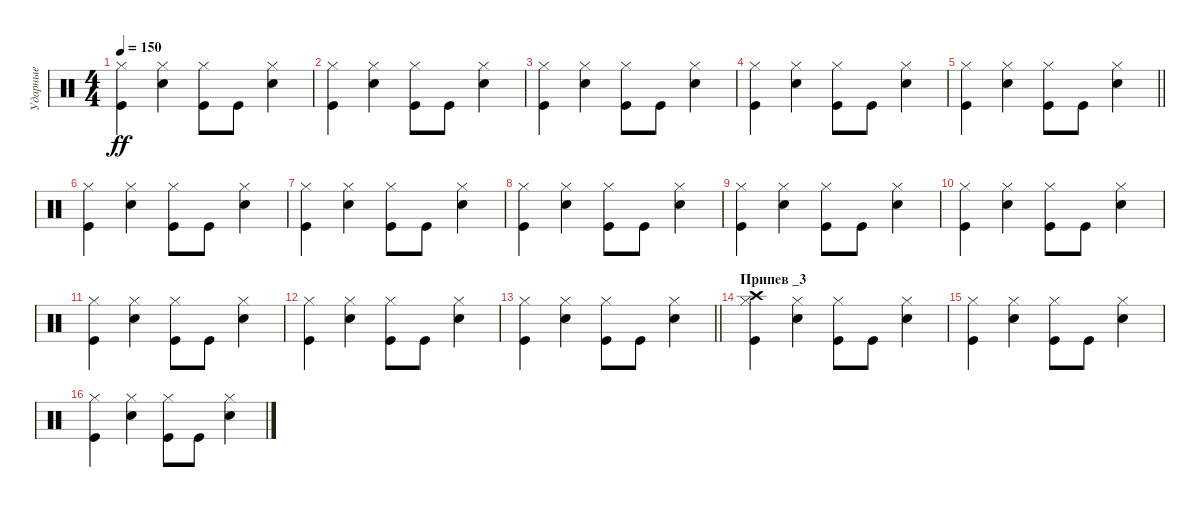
\track ("Ударные" "Ударные") {instrument percussion}
\staff {score}
\articulation defaults
\ts (4 4)
\tempo 150
\clef neutral
\ks c
("Kick (hit)" "Hi-Hat (closed)").4{dy ff} ("Snare (hit) 2" "Hi-Hat (closed)").4 ("Kick (hit)" "Hi-Hat (closed)").8 "Kick (hit)".8 ("Snare (hit) 2" "Hi-Hat (closed)").4 |
("Kick (hit)" "Hi-Hat (closed)").4 ("Snare (hit) 2" "Hi-Hat (closed)").4 ("Kick (hit)" "Hi-Hat (closed)").8 "Kick (hit)".8 ("Snare (hit) 2" "Hi-Hat (closed)").4 |
("Kick (hit)" "Hi-Hat (closed)").4 ("Snare (hit) 2" "Hi-Hat (closed)").4 ("Kick (hit)" "Hi-Hat (closed)").8 "Kick (hit)".8 ("Snare (hit) 2" "Hi-Hat (closed)").4 |
("Kick (hit)" "Hi-Hat (closed)").4 ("Snare (hit) 2" "Hi-Hat (closed)").4 ("Kick (hit)" "Hi-Hat (closed)").8 "Kick (hit)".8 ("Snare (hit) 2" "Hi-Hat (closed)").4 |
\barLineRight lightlight
("Kick (hit)" "Hi-Hat (closed)").4 ("Snare (hit) 2" "Hi-Hat (closed)").4 ("Kick (hit)" "Hi-Hat (closed)").8 "Kick (hit)".8 ("Snare (hit) 2" "Hi-Hat (closed)").4 |
("Kick (hit)" "Hi-Hat (closed)").4 ("Snare (hit) 2" "Hi-Hat (closed)").4 ("Kick (hit)" "Hi-Hat (closed)").8 "Kick (hit)".8 ("Snare (hit) 2" "Hi-Hat (closed)").4 |
("Kick (hit)" "Hi-Hat (closed)").4 ("Snare (hit) 2" "Hi-Hat (closed)").4 ("Kick (hit)" "Hi-Hat (closed)").8 "Kick (hit)".8 ("Snare (hit) 2" "Hi-Hat (closed)").4 |
("Kick (hit)" "Hi-Hat (closed)").4 ("Snare (hit) 2" "Hi-Hat (closed)").4 ("Kick (hit)" "Hi-Hat (closed)").8 "Kick (hit)".8 ("Snare (hit) 2" "Hi-Hat (closed)").4 |
("Kick (hit)" "Hi-Hat (closed)").4 ("Snare (hit) 2" "Hi-Hat (closed)").4 ("Kick (hit)" "Hi-Hat (closed)").8 "Kick (hit)".8 ("Snare (hit) 2" "Hi-Hat (closed)").4 |
("Kick (hit)" "Hi-Hat (closed)").4 ("Snare (hit) 2" "Hi-Hat (closed)").4 ("Kick (hit)" "Hi-Hat (closed)").8 "Kick (hit)".8 ("Snare (hit) 2" "Hi-Hat (closed)").4 |
("Kick (hit)" "Hi-Hat (closed)").4 ("Snare (hit) 2" "Hi-Hat (closed)").4 ("Kick (hit)" "Hi-Hat (closed)").8 "Kick (hit)".8 ("Snare (hit) 2" "Hi-Hat (closed)").4 |
("Kick (hit)" "Hi-Hat (closed)").4 ("Snare (hit) 2" "Hi-Hat (closed)").4 ("Kick (hit)" "Hi-Hat (closed)").8 "Kick (hit)".8 ("Snare (hit) 2" "Hi-Hat (closed)").4 |
\barLineRight lightlight
("Kick (hit)" "Hi-Hat (closed)").4 ("Snare (hit) 2" "Hi-Hat (closed)").4 ("Kick (hit)" "Hi-Hat (closed)").8 "Kick (hit)".8 ("Snare (hit) 2" "Hi-Hat (closed)").4 |
\section ("" "Припев _3")
("Kick (hit)" "Hi-Hat (closed)" "Crash high (hit)").4 ("Snare (hit) 2" "Hi-Hat (closed)").4 ("Kick (hit)" "Hi-Hat (closed)").8 "Kick (hit)".8 ("Snare (hit) 2" "Hi-Hat (closed)").4 |
("Kick (hit)" "Hi-Hat (closed)").4 ("Snare (hit) 2" "Hi-Hat (closed)").4 ("Kick (hit)" "Hi-Hat (closed)").8 "Kick (hit)".8 ("Snare (hit) 2" "Hi-Hat (closed)").4 |
("Kick (hit)" "Hi-Hat (closed)").4 ("Snare (hit) 2" "Hi-Hat (closed)").4 ("Kick (hit)" "Hi-Hat (closed)").8 "Kick (hit)".8 ("Snare (hit) 2" "Hi-Hat (closed)").4
